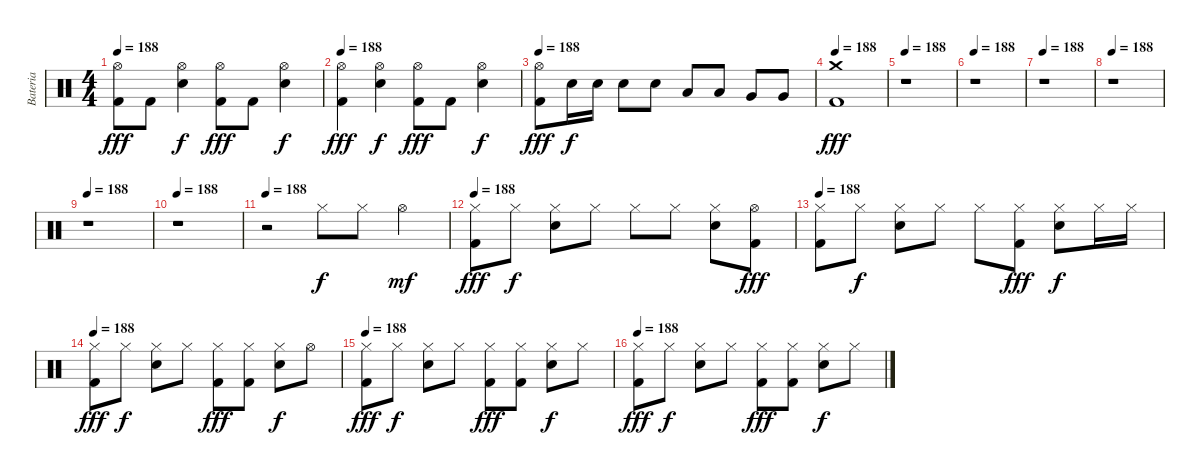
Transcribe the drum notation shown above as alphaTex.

\track ("Bateria" "Bateria") {instrument percussion}
\staff {score}
\articulation defaults
\ts (4 4)
\tempo 188
\clef neutral
\ks c
("Hi-Hat (open)" "Kick (hit) 2").8{dy fff} "Kick (hit) 2".8 ("Hi-Hat (open)" "Electric Snare (hit)").4{dy f} ("Hi-Hat (open)" "Kick (hit) 2").8{dy fff} "Kick (hit) 2".8 ("Hi-Hat (open)" "Electric Snare (hit)").4{dy f} |
\tempo 188
("Hi-Hat (open)" "Kick (hit) 2").4{dy fff} ("Hi-Hat (open)" "Electric Snare (hit)").4{dy f} ("Hi-Hat (open)" "Kick (hit) 2").8{dy fff} "Kick (hit) 2".8 ("Hi-Hat (open)" "Electric Snare (hit)").4{dy f} |
\tempo 188
("Hi-Hat (open)" "Kick (hit) 2").8{dy fff} "Electric Snare (hit)".16{dy f} "Electric Snare (hit)".16 "Electric Snare (hit)".8 "Electric Snare (hit)".8 "Low Tom (hit)".8 "Low Tom (hit)".8 "Very Low Tom (hit)".8 "Very Low Tom (hit)".8 |
\tempo 188
("Crash medium (hit)" "Kick (hit) 2").1{dy fff} |
\tempo 188
r.1 |
\tempo 188
r.1 |
\tempo 188
r.1 |
\tempo 188
r.1 |
\tempo 188
r.1 |
\tempo 188
r.1 |
\tempo 188
r.2 "Hi-Hat (closed)".8{dy f} "Hi-Hat (closed)".8 "Hi-Hat (open)".4{dy mf} |
\tempo 188
("Hi-Hat (closed)" "Kick (hit) 2").8{dy fff} "Hi-Hat (closed)".8{dy f} ("Hi-Hat (closed)" "Electric Snare (hit)").8 "Hi-Hat (closed)".8 "Hi-Hat (closed)".8 "Hi-Hat (closed)".8 ("Hi-Hat (closed)" "Electric Snare (hit)").8 ("Hi-Hat (open)" "Kick (hit) 2").8{dy fff} |
\tempo 188
("Hi-Hat (closed)" "Kick (hit) 2").8 "Hi-Hat (closed)".8{dy f} ("Hi-Hat (closed)" "Electric Snare (hit)").8 "Hi-Hat (closed)".8 "Hi-Hat (closed)".8 ("Hi-Hat (closed)" "Kick (hit) 2").8{dy fff} ("Hi-Hat (closed)" "Electric Snare (hit)").8{dy f} "Hi-Hat (closed)".16 "Hi-Hat (closed)".16 |
\tempo 188
("Hi-Hat (closed)" "Kick (hit) 2").8{dy fff} "Hi-Hat (closed)".8{dy f} ("Hi-Hat (closed)" "Electric Snare (hit)").8 "Hi-Hat (closed)".8 ("Hi-Hat (closed)" "Kick (hit) 2").8{dy fff} ("Hi-Hat (closed)" "Kick (hit) 2").8 ("Hi-Hat (closed)" "Electric Snare (hit)").8{dy f} "Hi-Hat (open)".8 |
\tempo 188
("Hi-Hat (closed)" "Kick (hit) 2").8{dy fff} "Hi-Hat (closed)".8{dy f} ("Hi-Hat (closed)" "Electric Snare (hit)").8 "Hi-Hat (closed)".8 ("Hi-Hat (closed)" "Kick (hit) 2").8{dy fff} ("Hi-Hat (closed)" "Kick (hit) 2").8 ("Hi-Hat (closed)" "Electric Snare (hit)").8{dy f} "Hi-Hat (closed)".8 |
\tempo 188
("Hi-Hat (closed)" "Kick (hit) 2").8{dy fff} "Hi-Hat (closed)".8{dy f} ("Hi-Hat (closed)" "Electric Snare (hit)").8 "Hi-Hat (closed)".8 ("Hi-Hat (closed)" "Kick (hit) 2").8{dy fff} ("Hi-Hat (closed)" "Kick (hit) 2").8 ("Hi-Hat (closed)" "Electric Snare (hit)").8{dy f} "Hi-Hat (closed)".8
